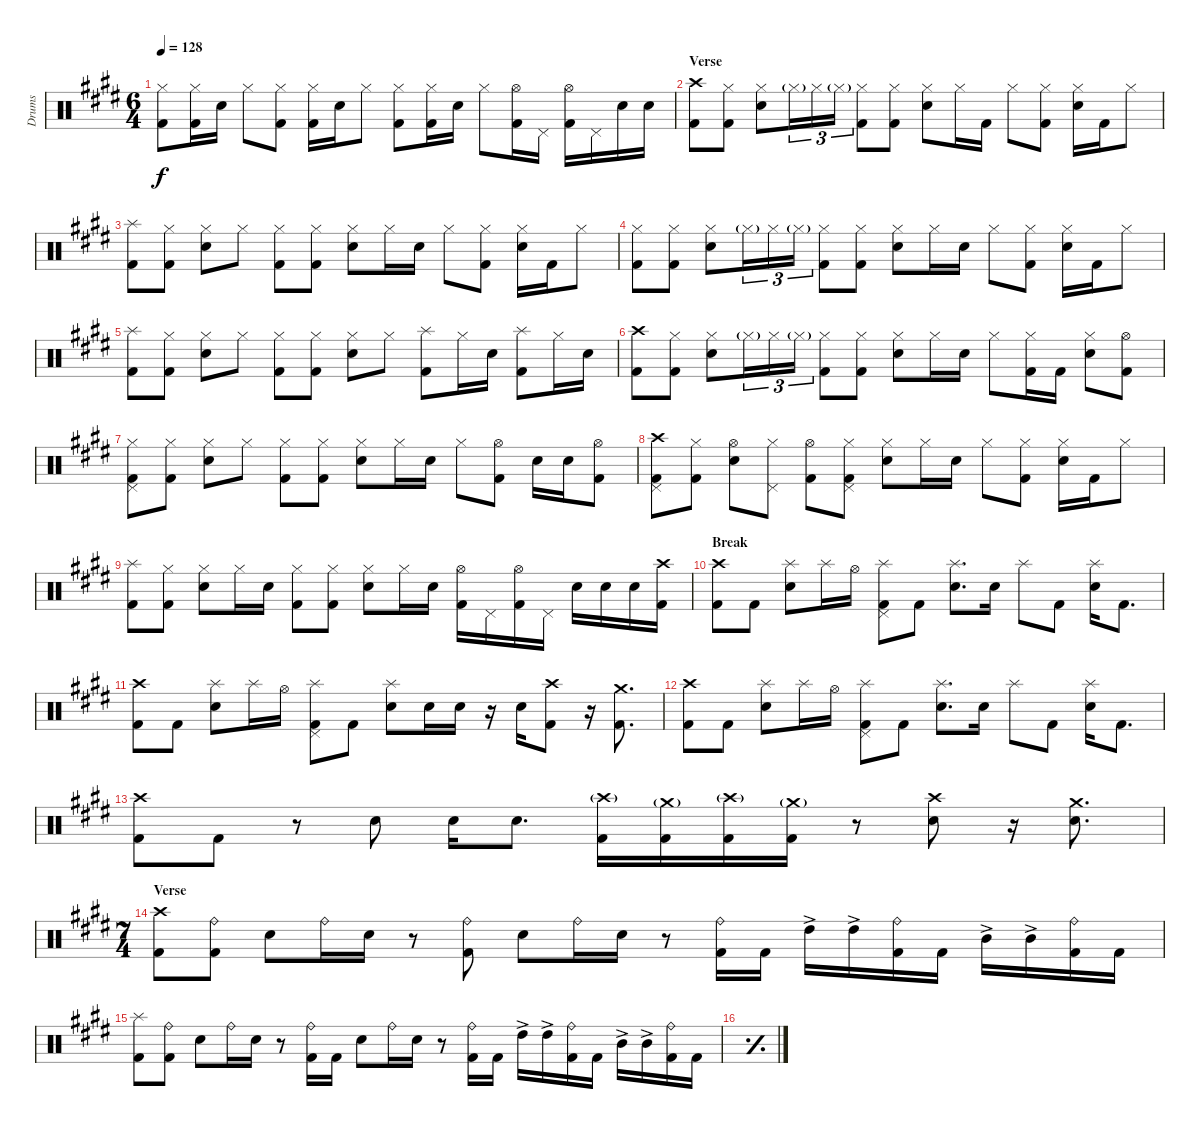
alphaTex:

\defaultSystemsLayout 4
\bracketExtendMode groupsimilarinstruments
\otherSystemsTrackNameOrientation horizontal
\track ("Drumkit" "Drums") {multiBarRest instrument percussion}
\staff {score}
\articulation defaults
\ts (6 4)
\tempo 128
\clef neutral
\ks e
("Hi-Hat (closed)"{acc forcenatural} "Kick (hit) 2"{acc forcenatural}).8{dy f} ("Hi-Hat (closed)"{acc forcenatural} "Kick (hit) 2"{acc forcenatural}).16 "Snare (hit) 2"{acc forcenatural}.16 "Hi-Hat (closed)"{acc forcenatural}.8 ("Hi-Hat (closed)"{acc forcenatural} "Kick (hit) 2"{acc forcenatural}).8 ("Hi-Hat (closed)"{acc forcenatural} "Kick (hit) 2"{acc forcenatural}).16 "Snare (hit) 2"{acc forcenatural}.16 "Hi-Hat (closed)"{acc forcenatural}.8 ("Hi-Hat (closed)"{acc forcenatural} "Kick (hit) 2"{acc forcenatural}).8 ("Hi-Hat (closed)"{acc forcenatural} "Kick (hit) 2"{acc forcenatural}).16 "Snare (hit) 2"{acc forcenatural}.16 "Hi-Hat (closed)"{acc forcenatural}.8 ("Hi-Hat (open)"{acc forcenatural} "Kick (hit) 2"{acc forcenatural}).16 "Pedal Hi-Hat (hit)"{acc forcenatural}.16 ("Hi-Hat (open)"{acc forcenatural} "Kick (hit) 2"{acc forcenatural}).16 "Pedal Hi-Hat (hit)"{acc forcenatural}.16 "Snare (hit) 2"{acc forcenatural}.16 "Snare (hit) 2"{acc forcenatural}.16 |
\section ("" "Verse")
("Kick (hit) 2"{acc forcenatural} "Crash high (hit)"{acc forcenatural}).8 ("Hi-Hat (closed)"{acc forcenatural} "Kick (hit) 2"{acc forcenatural}).8 ("Hi-Hat (closed)"{acc forcenatural} "Snare (hit) 2"{acc forcenatural}).8{beam merge} "Hi-Hat (closed)"{g acc forcenatural}.16{tu (3 2) beam merge} "Hi-Hat (closed)"{acc forcenatural}.16{tu (3 2) beam merge} "Hi-Hat (closed)"{g acc forcenatural}.16{tu (3 2)} ("Hi-Hat (closed)"{acc forcenatural} "Kick (hit) 2"{acc forcenatural}).8 ("Hi-Hat (closed)"{acc forcenatural} "Kick (hit) 2"{acc forcenatural}).8 ("Hi-Hat (closed)"{acc forcenatural} "Snare (hit) 2"{acc forcenatural}).8 "Hi-Hat (closed)"{acc forcenatural}.16 "Kick (hit) 2"{acc forcenatural}.16 "Hi-Hat (closed)"{acc forcenatural}.8 ("Hi-Hat (closed)"{acc forcenatural} "Kick (hit) 2"{acc forcenatural}).8 ("Hi-Hat (closed)"{acc forcenatural} "Snare (hit) 2"{acc forcenatural}).16 "Kick (hit) 2"{acc forcenatural}.16 "Hi-Hat (closed)"{acc forcenatural}.8 |
("Kick (hit) 2"{acc forcenatural} "Splash (hit)"{acc forcenatural}).8 ("Hi-Hat (closed)"{acc forcenatural} "Kick (hit) 2"{acc forcenatural}).8 ("Hi-Hat (closed)"{acc forcenatural} "Snare (hit) 2"{acc forcenatural}).8 "Hi-Hat (closed)"{acc forcenatural}.8 ("Hi-Hat (closed)"{acc forcenatural} "Kick (hit) 2"{acc forcenatural}).8 ("Hi-Hat (closed)"{acc forcenatural} "Kick (hit) 2"{acc forcenatural}).8 ("Hi-Hat (closed)"{acc forcenatural} "Snare (hit) 2"{acc forcenatural}).8 "Hi-Hat (closed)"{acc forcenatural}.16 "Snare (hit) 2"{acc forcenatural}.16 "Hi-Hat (closed)"{acc forcenatural}.8 ("Hi-Hat (closed)"{acc forcenatural} "Kick (hit) 2"{acc forcenatural}).8 ("Hi-Hat (closed)"{acc forcenatural} "Snare (hit) 2"{acc forcenatural}).16 "Kick (hit) 2"{acc forcenatural}.16 "Hi-Hat (closed)"{acc forcenatural}.8 |
("Kick (hit) 2"{acc forcenatural} "Hi-Hat (closed)"{acc forcenatural}).8 ("Hi-Hat (closed)"{acc forcenatural} "Kick (hit) 2"{acc forcenatural}).8 ("Hi-Hat (closed)"{acc forcenatural} "Snare (hit) 2"{acc forcenatural}).8{beam merge} "Hi-Hat (closed)"{g acc forcenatural}.16{tu (3 2) beam merge} "Hi-Hat (closed)"{acc forcenatural}.16{tu (3 2) beam merge} "Hi-Hat (closed)"{g acc forcenatural}.16{tu (3 2)} ("Hi-Hat (closed)"{acc forcenatural} "Kick (hit) 2"{acc forcenatural}).8 ("Hi-Hat (closed)"{acc forcenatural} "Kick (hit) 2"{acc forcenatural}).8 ("Hi-Hat (closed)"{acc forcenatural} "Snare (hit) 2"{acc forcenatural}).8 "Hi-Hat (closed)"{acc forcenatural}.16 "Snare (hit) 2"{acc forcenatural}.16 "Hi-Hat (closed)"{acc forcenatural}.8 ("Hi-Hat (closed)"{acc forcenatural} "Kick (hit) 2"{acc forcenatural}).8 ("Hi-Hat (closed)"{acc forcenatural} "Snare (hit) 2"{acc forcenatural}).16 "Kick (hit) 2"{acc forcenatural}.16 "Hi-Hat (closed)"{acc forcenatural}.8 |
("Kick (hit) 2"{acc forcenatural} "Splash (hit)"{acc forcenatural}).8 ("Hi-Hat (closed)"{acc forcenatural} "Kick (hit) 2"{acc forcenatural}).8 ("Hi-Hat (closed)"{acc forcenatural} "Snare (hit) 2"{acc forcenatural}).8 "Hi-Hat (closed)"{acc forcenatural}.8 ("Hi-Hat (closed)"{acc forcenatural} "Kick (hit) 2"{acc forcenatural}).8 ("Hi-Hat (closed)"{acc forcenatural} "Kick (hit) 2"{acc forcenatural}).8 ("Hi-Hat (closed)"{acc forcenatural} "Snare (hit) 2"{acc forcenatural}).8 "Hi-Hat (closed)"{acc forcenatural}.8 ("Kick (hit) 2"{acc forcenatural} "Splash (hit)"{acc forcenatural}).8 "Hi-Hat (closed)"{acc forcenatural}.16 "Snare (hit) 2"{acc forcenatural}.16 ("Kick (hit) 2"{acc forcenatural} "Splash (hit)"{acc forcenatural}).8 "Hi-Hat (closed)"{acc forcenatural}.16 "Snare (hit) 2"{acc forcenatural}.16 |
("Kick (hit) 2"{acc forcenatural} "Crash high (hit)"{acc forcenatural}).8 ("Hi-Hat (closed)"{acc forcenatural} "Kick (hit) 2"{acc forcenatural}).8 ("Hi-Hat (closed)"{acc forcenatural} "Snare (hit) 2"{acc forcenatural}).8{beam merge} "Hi-Hat (closed)"{g acc forcenatural}.16{tu (3 2) beam merge} "Hi-Hat (closed)"{acc forcenatural}.16{tu (3 2) beam merge} "Hi-Hat (closed)"{g acc forcenatural}.16{tu (3 2)} ("Hi-Hat (closed)"{acc forcenatural} "Kick (hit) 2"{acc forcenatural}).8 ("Hi-Hat (closed)"{acc forcenatural} "Kick (hit) 2"{acc forcenatural}).8 ("Hi-Hat (closed)"{acc forcenatural} "Snare (hit) 2"{acc forcenatural}).8 "Hi-Hat (closed)"{acc forcenatural}.16 "Snare (hit) 2"{acc forcenatural}.16 "Hi-Hat (closed)"{acc forcenatural}.8 ("Hi-Hat (closed)"{acc forcenatural} "Kick (hit) 2"{acc forcenatural}).16 "Kick (hit) 2"{acc forcenatural}.16 ("Hi-Hat (closed)"{acc forcenatural} "Snare (hit) 2"{acc forcenatural}).8 ("Hi-Hat (open)"{acc forcenatural} "Kick (hit) 2"{acc forcenatural}).8 |
("Kick (hit) 2"{acc forcenatural} "Hi-Hat (closed)"{acc forcenatural} "Pedal Hi-Hat (hit)"{acc forcenatural}).8 ("Hi-Hat (closed)"{acc forcenatural} "Kick (hit) 2"{acc forcenatural}).8 ("Hi-Hat (closed)"{acc forcenatural} "Snare (hit) 2"{acc forcenatural}).8 "Hi-Hat (closed)"{acc forcenatural}.8 ("Hi-Hat (closed)"{acc forcenatural} "Kick (hit) 2"{acc forcenatural}).8 ("Hi-Hat (closed)"{acc forcenatural} "Kick (hit) 2"{acc forcenatural}).8 ("Hi-Hat (closed)"{acc forcenatural} "Snare (hit) 2"{acc forcenatural}).8 "Hi-Hat (closed)"{acc forcenatural}.16 "Snare (hit) 2"{acc forcenatural}.16 "Hi-Hat (closed)"{acc forcenatural}.8 ("Hi-Hat (open)"{acc forcenatural} "Kick (hit) 2"{acc forcenatural}).8 "Snare (hit) 2"{acc forcenatural}.16 "Snare (hit) 2"{acc forcenatural}.16 ("Hi-Hat (open)"{acc forcenatural} "Kick (hit) 2"{acc forcenatural}).8 |
("Kick (hit) 2"{acc forcenatural} "Crash high (hit)"{acc forcenatural} "Pedal Hi-Hat (hit)"{acc forcenatural}).8 ("Hi-Hat (closed)"{acc forcenatural} "Kick (hit) 2"{acc forcenatural}).8 ("Hi-Hat (open)"{acc forcenatural} "Snare (hit) 2"{acc forcenatural}).8 ("Hi-Hat (closed)"{acc forcenatural} "Pedal Hi-Hat (hit)"{acc forcenatural}).8 ("Hi-Hat (open)"{acc forcenatural} "Kick (hit) 2"{acc forcenatural}).8 ("Hi-Hat (closed)"{acc forcenatural} "Kick (hit) 2"{acc forcenatural} "Pedal Hi-Hat (hit)"{acc forcenatural}).8 ("Hi-Hat (closed)"{acc forcenatural} "Snare (hit) 2"{acc forcenatural}).8 "Hi-Hat (closed)"{acc forcenatural}.16 "Snare (hit) 2"{acc forcenatural}.16 "Hi-Hat (closed)"{acc forcenatural}.8 ("Hi-Hat (closed)"{acc forcenatural} "Kick (hit) 2"{acc forcenatural}).8 ("Hi-Hat (closed)"{acc forcenatural} "Snare (hit) 2"{acc forcenatural}).16 "Kick (hit) 2"{acc forcenatural}.16 "Hi-Hat (closed)"{acc forcenatural}.8 |
("Kick (hit) 2"{acc forcenatural} "Splash (hit)"{acc forcenatural}).8 ("Hi-Hat (closed)"{acc forcenatural} "Kick (hit) 2"{acc forcenatural}).8 ("Hi-Hat (closed)"{acc forcenatural} "Snare (hit) 2"{acc forcenatural}).8 "Hi-Hat (closed)"{acc forcenatural}.16 "Snare (hit) 2"{acc forcenatural}.16 ("Hi-Hat (closed)"{acc forcenatural} "Kick (hit) 2"{acc forcenatural}).8 ("Hi-Hat (closed)"{acc forcenatural} "Kick (hit) 2"{acc forcenatural}).8 ("Hi-Hat (closed)"{acc forcenatural} "Snare (hit) 2"{acc forcenatural}).8 "Hi-Hat (closed)"{acc forcenatural}.16 "Snare (hit) 2"{acc forcenatural}.16 ("Hi-Hat (open)"{acc forcenatural} "Kick (hit) 2"{acc forcenatural}).16 "Pedal Hi-Hat (hit)"{acc forcenatural}.16 ("Hi-Hat (open)"{acc forcenatural} "Kick (hit) 2"{acc forcenatural}).16 "Pedal Hi-Hat (hit)"{acc forcenatural}.16 "Snare (hit) 2"{acc forcenatural}.16 "Snare (hit) 2"{acc forcenatural}.16 "Snare (hit) 2"{acc forcenatural}.16 ("Kick (hit) 2"{acc forcenatural} "Crash high (hit)"{acc forcenatural}).16 |
\section ("" "Break")
("Crash high (hit)"{acc forcenatural} "Kick (hit) 2"{acc forcenatural}).8 "Kick (hit) 2"{acc forcenatural}.8 ("Snare (hit) 2"{acc forcenatural} "Splash (hit)"{acc forcenatural}).8 "Splash (hit)"{acc forcenatural}.16 "Hi-Hat (open)"{acc forcenatural}.16 ("Kick (hit) 2"{acc forcenatural} "Pedal Hi-Hat (hit)"{acc forcenatural} "Splash (hit)"{acc forcenatural}).8 "Kick (hit) 2"{acc forcenatural}.8 ("Snare (hit) 2"{acc forcenatural} "Splash (hit)"{acc forcenatural}).8{d} "Snare (hit) 2"{acc forcenatural}.16 "Splash (hit)"{acc forcenatural}.8 "Kick (hit) 2"{acc forcenatural}.8 ("Snare (hit) 2"{acc forcenatural} "Splash (hit)"{acc forcenatural}).16 "Kick (hit) 2"{acc forcenatural}.8{d} |
("Crash high (hit)"{acc forcenatural} "Kick (hit) 2"{acc forcenatural}).8 "Kick (hit) 2"{acc forcenatural}.8 ("Snare (hit) 2"{acc forcenatural} "Splash (hit)"{acc forcenatural}).8 "Splash (hit)"{acc forcenatural}.16 "Hi-Hat (open)"{acc forcenatural}.16 ("Kick (hit) 2"{acc forcenatural} "Pedal Hi-Hat (hit)"{acc forcenatural} "Splash (hit)"{acc forcenatural}).8 "Kick (hit) 2"{acc forcenatural}.8 ("Snare (hit) 2"{acc forcenatural} "Splash (hit)"{acc forcenatural}).8 "Snare (hit) 2"{acc forcenatural}.16 "Snare (hit) 2"{acc forcenatural}.16 r.16 "Snare (hit) 2"{acc forcenatural}.16 ("Crash high (hit)"{acc forcenatural} "Kick (hit) 2"{acc forcenatural}).8 r.16 ("Crash medium (hit)"{acc forcenatural} "Kick (hit) 2"{acc forcenatural}).8{d} |
("Crash high (hit)"{acc forcenatural} "Kick (hit) 2"{acc forcenatural}).8 "Kick (hit) 2"{acc forcenatural}.8 ("Snare (hit) 2"{acc forcenatural} "Splash (hit)"{acc forcenatural}).8 "Splash (hit)"{acc forcenatural}.16 "Hi-Hat (open)"{acc forcenatural}.16 ("Kick (hit) 2"{acc forcenatural} "Pedal Hi-Hat (hit)"{acc forcenatural} "Splash (hit)"{acc forcenatural}).8 "Kick (hit) 2"{acc forcenatural}.8 ("Snare (hit) 2"{acc forcenatural} "Splash (hit)"{acc forcenatural}).8{d} "Snare (hit) 2"{acc forcenatural}.16 "Splash (hit)"{acc forcenatural}.8 "Kick (hit) 2"{acc forcenatural}.8 ("Snare (hit) 2"{acc forcenatural} "Splash (hit)"{acc forcenatural}).16 "Kick (hit) 2"{acc forcenatural}.8{d} |
("Crash high (hit)"{acc forcenatural} "Kick (hit) 2"{acc forcenatural}).8 "Kick (hit) 2"{acc forcenatural}.8 r.8 "Snare (hit) 2"{acc forcenatural}.8 "Snare (hit) 2"{acc forcenatural}.16 "Snare (hit) 2"{acc forcenatural}.8{d} ("Crash high (hit)"{g acc forcenatural} "Kick (hit) 2"{acc forcenatural}).16 ("Crash medium (hit)"{g acc forcenatural} "Kick (hit) 2"{acc forcenatural}).16 ("Crash high (hit)"{g acc forcenatural} "Kick (hit) 2"{acc forcenatural}).16 ("Crash medium (hit)"{g acc forcenatural} "Kick (hit) 2"{acc forcenatural}).16 r.8 ("Crash high (hit)"{acc forcenatural} "Snare (hit) 2"{acc forcenatural}).8 r.16 ("Crash medium (hit)"{acc forcenatural} "Snare (hit) 2"{acc forcenatural}).8{d} |
\ts (7 4)
\beaming (8 2 2 2 2 2 2 2)
\section ("" "Verse")
("Kick (hit) 2"{acc forcenatural} "Crash high (hit)"{acc forcenatural}).8 ("Kick (hit) 2"{acc forcenatural} "Ride (bell)"{acc forcenatural}).8 "Snare (hit) 2"{acc forcenatural}.8 "Ride (bell)"{acc forcenatural}.16 "Snare (hit) 2"{acc forcenatural}.16 r.8 ("Ride (bell)"{acc forcenatural} "Kick (hit) 2"{acc forcenatural}).8 "Snare (hit) 2"{acc forcenatural}.8 "Ride (bell)"{acc forcenatural}.16 "Snare (hit) 2"{acc forcenatural}.16 r.8 ("Ride (bell)"{acc forcenatural} "Kick (hit) 2"{acc forcenatural}).16 "Kick (hit) 2"{acc forcenatural}.16 "High Tom (hit)"{ac acc forcenatural}.16 "High Tom (hit)"{ac acc forcenatural}.16 ("Ride (bell)"{acc forcenatural} "Kick (hit) 2"{acc forcenatural}).16 "Kick (hit) 2"{acc forcenatural}.16 "Mid Tom (hit)"{ac acc forcenatural}.16 "Mid Tom (hit)"{ac acc forcenatural}.16 ("Ride (bell)"{acc forcenatural} "Kick (hit) 2"{acc forcenatural}).16 "Kick (hit) 2"{acc forcenatural}.16 |
("Kick (hit) 2"{acc forcenatural} "Splash (hit)"{acc forcenatural}).8 ("Ride (bell)"{acc forcenatural} "Kick (hit) 2"{acc forcenatural}).8 "Snare (hit) 2"{acc forcenatural}.8 "Ride (bell)"{acc forcenatural}.16 "Snare (hit) 2"{acc forcenatural}.16 r.8 ("Ride (bell)"{acc forcenatural} "Kick (hit) 2"{acc forcenatural}).16 "Kick (hit) 2"{acc forcenatural}.16 "Snare (hit) 2"{acc forcenatural}.8 "Ride (bell)"{acc forcenatural}.16 "Snare (hit) 2"{acc forcenatural}.16 r.8 ("Ride (bell)"{acc forcenatural} "Kick (hit) 2"{acc forcenatural}).16 "Kick (hit) 2"{acc forcenatural}.16 "High Tom (hit)"{ac acc forcenatural}.16 "High Tom (hit)"{ac acc forcenatural}.16 ("Ride (bell)"{acc forcenatural} "Kick (hit) 2"{acc forcenatural}).16 "Kick (hit) 2"{acc forcenatural}.16 "Mid Tom (hit)"{ac acc forcenatural}.16 "Mid Tom (hit)"{ac acc forcenatural}.16 ("Ride (bell)"{acc forcenatural} "Kick (hit) 2"{acc forcenatural}).16 "Kick (hit) 2"{acc forcenatural}.16 |
\simile simple
